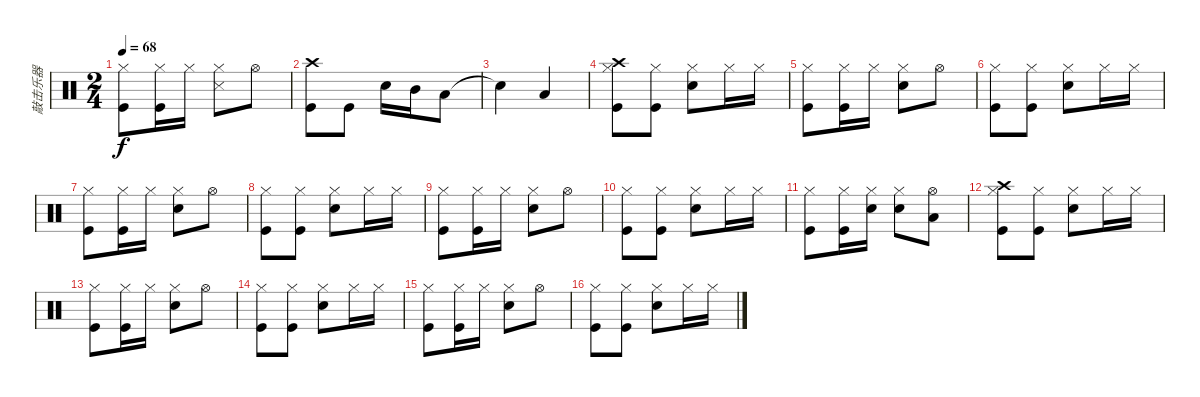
\track ("敲击乐器" "敲击乐器") {instrument percussion}
\staff {score}
\articulation defaults
\ts (2 4)
\tempo 68
\clef neutral
\ks c
("Hi-Hat (closed)" "Kick (hit)").8{dy f} ("Hi-Hat (closed)" "Kick (hit)").16 "Hi-Hat (closed)".16 ("Hi-Hat (closed)" "Snare (side stick) 3").8 "Hi-Hat (open)".8 |
("Crash high (hit)" "Kick (hit)").8 "Kick (hit)".8 "Snare (hit) 2".16 "Mid Tom (hit)".16 "Low Tom (hit)".8 |
"Snare (hit)"{t}.4 "Low Tom (hit)".4 |
("Hi-Hat (closed)" "Kick (hit)" "Crash high (hit)").8 ("Hi-Hat (closed)" "Kick (hit)").8 ("Hi-Hat (closed)" "Snare (hit) 2").8 "Hi-Hat (closed)".16 "Hi-Hat (closed)".16 |
("Hi-Hat (closed)" "Kick (hit)").8 ("Hi-Hat (closed)" "Kick (hit)").16 "Hi-Hat (closed)".16 ("Hi-Hat (closed)" "Snare (hit) 2").8 "Hi-Hat (open)".8 |
("Hi-Hat (closed)" "Kick (hit)").8 ("Hi-Hat (closed)" "Kick (hit)").8 ("Hi-Hat (closed)" "Snare (hit) 2").8 "Hi-Hat (closed)".16 "Hi-Hat (closed)".16 |
("Hi-Hat (closed)" "Kick (hit)").8 ("Hi-Hat (closed)" "Kick (hit)").16 "Hi-Hat (closed)".16 ("Hi-Hat (closed)" "Snare (hit) 2").8 "Hi-Hat (open)".8 |
("Hi-Hat (closed)" "Kick (hit)").8 ("Hi-Hat (closed)" "Kick (hit)").8 ("Hi-Hat (closed)" "Snare (hit) 2").8 "Hi-Hat (closed)".16 "Hi-Hat (closed)".16 |
("Hi-Hat (closed)" "Kick (hit)").8 ("Hi-Hat (closed)" "Kick (hit)").16 "Hi-Hat (closed)".16 ("Hi-Hat (closed)" "Snare (hit) 2").8 "Hi-Hat (open)".8 |
("Hi-Hat (closed)" "Kick (hit)").8 ("Hi-Hat (closed)" "Kick (hit)").8 ("Hi-Hat (closed)" "Snare (hit) 2").8 "Hi-Hat (closed)".16 "Hi-Hat (closed)".16 |
("Hi-Hat (closed)" "Kick (hit)").8 ("Hi-Hat (closed)" "Kick (hit)").16 ("Hi-Hat (closed)" "Snare (hit) 2").16 ("Hi-Hat (closed)" "Snare (hit) 2").8 ("Hi-Hat (open)" "Low Tom (hit)").8 |
("Hi-Hat (closed)" "Crash high (hit)" "Kick (hit)").8 ("Hi-Hat (closed)" "Kick (hit)").8 ("Hi-Hat (closed)" "Snare (hit) 2").8 "Hi-Hat (closed)".16 "Hi-Hat (closed)".16 |
("Hi-Hat (closed)" "Kick (hit)").8 ("Hi-Hat (closed)" "Kick (hit)").16 "Hi-Hat (closed)".16 ("Hi-Hat (closed)" "Snare (hit) 2").8 "Hi-Hat (open)".8 |
("Hi-Hat (closed)" "Kick (hit)").8 ("Hi-Hat (closed)" "Kick (hit)").8 ("Hi-Hat (closed)" "Snare (hit) 2").8 "Hi-Hat (closed)".16 "Hi-Hat (closed)".16 |
("Hi-Hat (closed)" "Kick (hit)").8 ("Hi-Hat (closed)" "Kick (hit)").16 "Hi-Hat (closed)".16 ("Hi-Hat (closed)" "Snare (hit) 2").8 "Hi-Hat (open)".8 |
("Hi-Hat (closed)" "Kick (hit)").8 ("Hi-Hat (closed)" "Kick (hit)").8 ("Hi-Hat (closed)" "Snare (hit) 2").8 "Hi-Hat (closed)".16 "Hi-Hat (closed)".16
